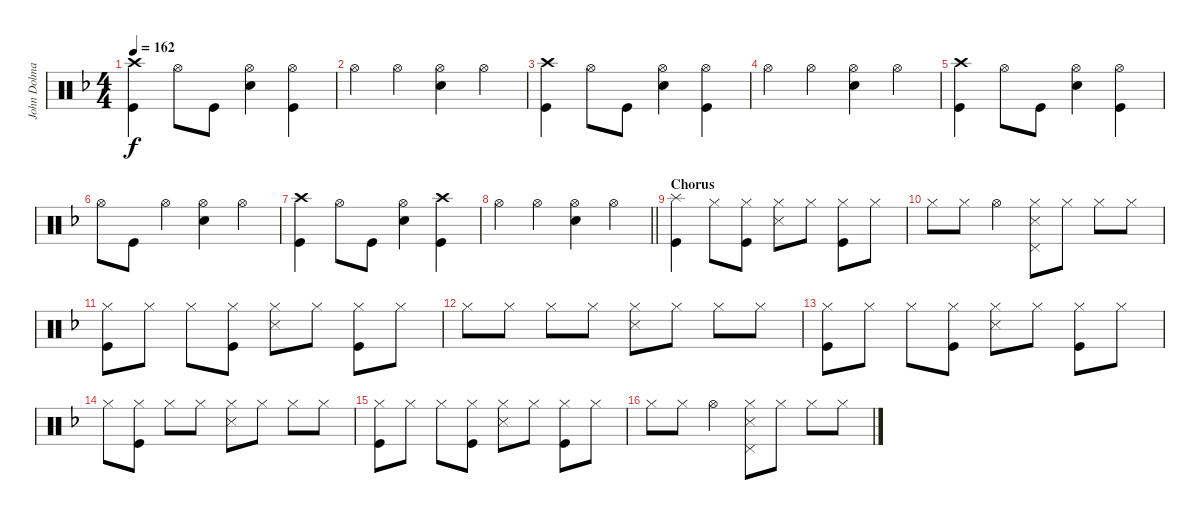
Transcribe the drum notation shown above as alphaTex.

\track ("John Dolmayan" "John Dolma") {instrument percussion}
\staff {score}
\articulation defaults
\ts (4 4)
\tempo 162
\clef neutral
\ks dminor
("Crash high (hit)" "Kick (hit)").4{dy f} "Hi-Hat (open)".8 "Kick (hit)".8 ("Hi-Hat (open)" "Snare (hit) 2").4 ("Kick (hit)" "Hi-Hat (open)").4 |
"Hi-Hat (open)".4 "Hi-Hat (open)".4 ("Hi-Hat (open)" "Snare (hit) 2").4 "Hi-Hat (open)".4 |
("Crash high (hit)" "Kick (hit)").4 "Hi-Hat (open)".8 "Kick (hit)".8 ("Hi-Hat (open)" "Snare (hit) 2").4 ("Kick (hit)" "Hi-Hat (open)").4 |
"Hi-Hat (open)".4 "Hi-Hat (open)".4 ("Hi-Hat (open)" "Snare (hit) 2").4 "Hi-Hat (open)".4 |
("Crash high (hit)" "Kick (hit)").4 "Hi-Hat (open)".8 "Kick (hit)".8 ("Hi-Hat (open)" "Snare (hit) 2").4 ("Kick (hit)" "Hi-Hat (open)").4 |
"Hi-Hat (open)".8 "Kick (hit)".8 "Hi-Hat (open)".4 ("Hi-Hat (open)" "Snare (hit) 2").4 "Hi-Hat (open)".4 |
("Crash high (hit)" "Kick (hit)").4 "Hi-Hat (open)".8 "Kick (hit)".8 ("Hi-Hat (open)" "Snare (hit) 2").4 ("Kick (hit)" "Crash high (hit)").4 |
\barLineRight lightlight "Hi-Hat (open)".4 "Hi-Hat (open)".4
("Hi-Hat (open)" "Snare (hit) 2").4 "Hi-Hat (open)".4 |
\section ("" "Chorus")
("Splash (hit)" "Kick (hit)").4 "Hi-Hat (closed)".8 ("Hi-Hat (closed)" "Kick (hit)").8 ("Hi-Hat (closed)" "Snare (side stick) 3").8 "Hi-Hat (closed)".8 ("Hi-Hat (closed)" "Kick (hit)").8 "Hi-Hat (closed)".8 |
"Hi-Hat (closed)".8 "Hi-Hat (closed)".8 "Hi-Hat (open)".4 ("Hi-Hat (closed)" "Pedal Hi-Hat (hit)" "Snare (side stick) 3").8 "Hi-Hat (closed)".8 "Hi-Hat (closed)".8 "Hi-Hat (closed)".8 |
("Hi-Hat (closed)" "Kick (hit)").8 "Hi-Hat (closed)".8 "Hi-Hat (closed)".8 ("Hi-Hat (closed)" "Kick (hit)").8 ("Hi-Hat (closed)" "Snare (side stick) 3").8 "Hi-Hat (closed)".8 ("Hi-Hat (closed)" "Kick (hit)").8 "Hi-Hat (closed)".8 |
"Hi-Hat (closed)".8 "Hi-Hat (closed)".8 "Hi-Hat (closed)".8 "Hi-Hat (closed)".8 ("Hi-Hat (closed)" "Snare (side stick) 3").8 "Hi-Hat (closed)".8 "Hi-Hat (closed)".8 "Hi-Hat (closed)".8 |
("Hi-Hat (closed)" "Kick (hit)").8 "Hi-Hat (closed)".8 "Hi-Hat (closed)".8 ("Hi-Hat (closed)" "Kick (hit)").8 ("Hi-Hat (closed)" "Snare (side stick) 3").8 "Hi-Hat (closed)".8 ("Hi-Hat (closed)" "Kick (hit)").8 "Hi-Hat (closed)".8 |
"Hi-Hat (closed)".8 ("Hi-Hat (closed)" "Kick (hit)").8 "Hi-Hat (closed)".8 "Hi-Hat (closed)".8 ("Hi-Hat (closed)" "Snare (side stick) 3").8 "Hi-Hat (closed)".8 "Hi-Hat (closed)".8 "Hi-Hat (closed)".8 |
("Hi-Hat (closed)" "Kick (hit)").8 "Hi-Hat (closed)".8 "Hi-Hat (closed)".8 ("Hi-Hat (closed)" "Kick (hit)").8 ("Hi-Hat (closed)" "Snare (side stick) 3").8 "Hi-Hat (closed)".8 ("Hi-Hat (closed)" "Kick (hit)").8 "Hi-Hat (closed)".8 |
"Hi-Hat (closed)".8 "Hi-Hat (closed)".8 "Hi-Hat (open)".4 ("Hi-Hat (closed)" "Pedal Hi-Hat (hit)" "Snare (side stick) 3").8 "Hi-Hat (closed)".8 "Hi-Hat (closed)".8 "Hi-Hat (closed)".8
